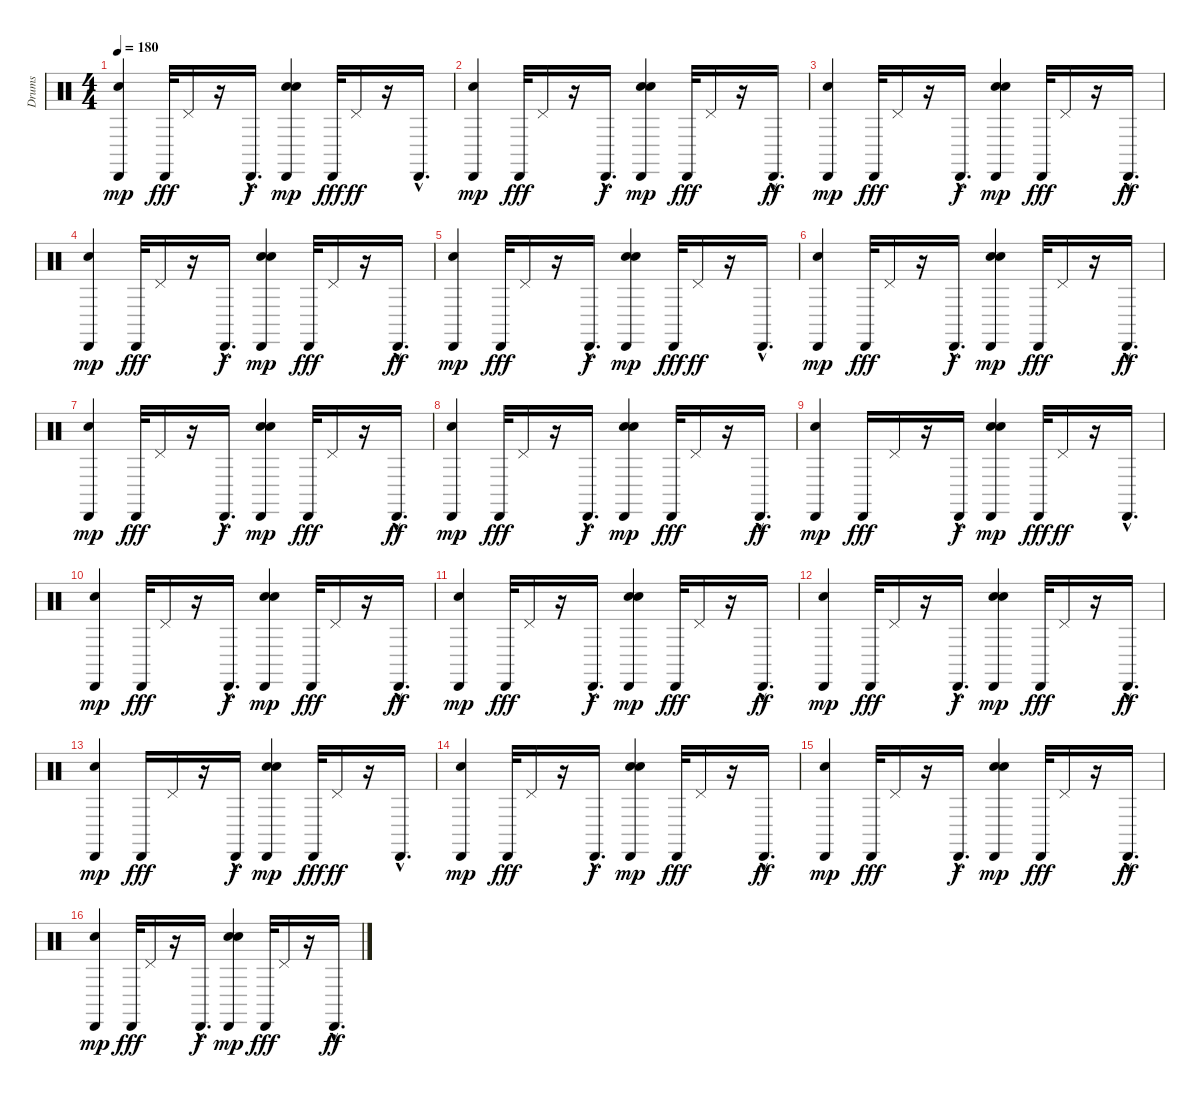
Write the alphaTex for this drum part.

\track ("Drums" "Drums") {instrument percussion}
\staff {score}
\articulation defaults
\ts (4 4)
\tempo 180
\clef neutral
\ks c
("Snare (hit) 2" "Cabasa (hit)").4{dy mp} "Cabasa (hit)".32{dy fff} "Pedal Hi-Hat (hit)".16 r.16 "Cabasa (hit)"{hac}.16{d dy f} ("Snare (hit) 2" "Snare (hit) 2" "Cabasa (hit)").4{dy mp} "Cabasa (hit)".32{dy fff} "Pedal Hi-Hat (hit)".16{dy ff} r.16 "Cabasa (hit)"{hac}.16{d} |
("Snare (hit) 2" "Cabasa (hit)").4{dy mp} "Cabasa (hit)".32{dy fff} "Pedal Hi-Hat (hit)".16 r.16 "Cabasa (hit)"{hac}.16{d dy f} ("Snare (hit) 2" "Snare (hit) 2" "Cabasa (hit)").4{dy mp} "Cabasa (hit)".32{dy fff} "Pedal Hi-Hat (hit)".16 r.16 "Cabasa (hit)"{hac}.16{d dy ff} |
("Snare (hit) 2" "Cabasa (hit)").4{dy mp} "Cabasa (hit)".32{dy fff} "Pedal Hi-Hat (hit)".16 r.16 "Cabasa (hit)"{hac}.16{d dy f} ("Snare (hit) 2" "Snare (hit) 2" "Cabasa (hit)").4{dy mp} "Cabasa (hit)".32{dy fff} "Pedal Hi-Hat (hit)".16 r.16 "Cabasa (hit)"{hac}.16{d dy ff} |
("Snare (hit) 2" "Cabasa (hit)").4{dy mp} "Cabasa (hit)".32{dy fff} "Pedal Hi-Hat (hit)".16 r.16 "Cabasa (hit)"{hac}.16{d dy f} ("Snare (hit) 2" "Snare (hit) 2" "Cabasa (hit)").4{dy mp} "Cabasa (hit)".32{dy fff} "Pedal Hi-Hat (hit)".16 r.16 "Cabasa (hit)"{hac}.16{d dy ff} |
("Snare (hit) 2" "Cabasa (hit)").4{dy mp} "Cabasa (hit)".32{dy fff} "Pedal Hi-Hat (hit)".16 r.16 "Cabasa (hit)"{hac}.16{d dy f} ("Snare (hit) 2" "Snare (hit) 2" "Cabasa (hit)").4{dy mp} "Cabasa (hit)".32{dy fff} "Pedal Hi-Hat (hit)".16{dy ff} r.16 "Cabasa (hit)"{hac}.16{d} |
("Snare (hit) 2" "Cabasa (hit)").4{dy mp} "Cabasa (hit)".32{dy fff} "Pedal Hi-Hat (hit)".16 r.16 "Cabasa (hit)"{hac}.16{d dy f} ("Snare (hit) 2" "Snare (hit) 2" "Cabasa (hit)").4{dy mp} "Cabasa (hit)".32{dy fff} "Pedal Hi-Hat (hit)".16 r.16 "Cabasa (hit)"{hac}.16{d dy ff} |
("Snare (hit) 2" "Cabasa (hit)").4{dy mp} "Cabasa (hit)".32{dy fff} "Pedal Hi-Hat (hit)".16 r.16 "Cabasa (hit)"{hac}.16{d dy f} ("Snare (hit) 2" "Snare (hit) 2" "Cabasa (hit)").4{dy mp} "Cabasa (hit)".32{dy fff} "Pedal Hi-Hat (hit)".16 r.16 "Cabasa (hit)"{hac}.16{d dy ff} |
("Snare (hit) 2" "Cabasa (hit)").4{dy mp} "Cabasa (hit)".32{dy fff} "Pedal Hi-Hat (hit)".16 r.16 "Cabasa (hit)"{hac}.16{d dy f} ("Snare (hit) 2" "Snare (hit) 2" "Cabasa (hit)").4{dy mp} "Cabasa (hit)".32{dy fff} "Pedal Hi-Hat (hit)".16 r.16 "Cabasa (hit)"{hac}.16{d dy ff} |
("Snare (hit) 2" "Cabasa (hit)").4{dy mp} "Cabasa (hit)".16{dy fff} "Pedal Hi-Hat (hit)".16 r.16 "Cabasa (hit)"{hac}.16{dy f} ("Snare (hit) 2" "Snare (hit) 2" "Cabasa (hit)").4{dy mp} "Cabasa (hit)".32{dy fff} "Pedal Hi-Hat (hit)".16{dy ff} r.16 "Cabasa (hit)"{hac}.16{d} |
("Snare (hit) 2" "Cabasa (hit)").4{dy mp} "Cabasa (hit)".32{dy fff} "Pedal Hi-Hat (hit)".16 r.16 "Cabasa (hit)"{hac}.16{d dy f} ("Snare (hit) 2" "Snare (hit) 2" "Cabasa (hit)").4{dy mp} "Cabasa (hit)".32{dy fff} "Pedal Hi-Hat (hit)".16 r.16 "Cabasa (hit)"{hac}.16{d dy ff} |
("Snare (hit) 2" "Cabasa (hit)").4{dy mp} "Cabasa (hit)".32{dy fff} "Pedal Hi-Hat (hit)".16 r.16 "Cabasa (hit)"{hac}.16{d dy f} ("Snare (hit) 2" "Snare (hit) 2" "Cabasa (hit)").4{dy mp} "Cabasa (hit)".32{dy fff} "Pedal Hi-Hat (hit)".16 r.16 "Cabasa (hit)"{hac}.16{d dy ff} |
("Snare (hit) 2" "Cabasa (hit)").4{dy mp} "Cabasa (hit)".32{dy fff} "Pedal Hi-Hat (hit)".16 r.16 "Cabasa (hit)"{hac}.16{d dy f} ("Snare (hit) 2" "Snare (hit) 2" "Cabasa (hit)").4{dy mp} "Cabasa (hit)".32{dy fff} "Pedal Hi-Hat (hit)".16 r.16 "Cabasa (hit)"{hac}.16{d dy ff} |
("Snare (hit) 2" "Cabasa (hit)").4{dy mp} "Cabasa (hit)".16{dy fff} "Pedal Hi-Hat (hit)".16 r.16 "Cabasa (hit)"{hac}.16{dy f} ("Snare (hit) 2" "Snare (hit) 2" "Cabasa (hit)").4{dy mp} "Cabasa (hit)".32{dy fff} "Pedal Hi-Hat (hit)".16{dy ff} r.16 "Cabasa (hit)"{hac}.16{d} |
("Snare (hit) 2" "Cabasa (hit)").4{dy mp} "Cabasa (hit)".32{dy fff} "Pedal Hi-Hat (hit)".16 r.16 "Cabasa (hit)"{hac}.16{d dy f} ("Snare (hit) 2" "Snare (hit) 2" "Cabasa (hit)").4{dy mp} "Cabasa (hit)".32{dy fff} "Pedal Hi-Hat (hit)".16 r.16 "Cabasa (hit)"{hac}.16{d dy ff} |
("Snare (hit) 2" "Cabasa (hit)").4{dy mp} "Cabasa (hit)".32{dy fff} "Pedal Hi-Hat (hit)".16 r.16 "Cabasa (hit)"{hac}.16{d dy f} ("Snare (hit) 2" "Snare (hit) 2" "Cabasa (hit)").4{dy mp} "Cabasa (hit)".32{dy fff} "Pedal Hi-Hat (hit)".16 r.16 "Cabasa (hit)"{hac}.16{d dy ff} |
("Snare (hit) 2" "Cabasa (hit)").4{dy mp} "Cabasa (hit)".32{dy fff} "Pedal Hi-Hat (hit)".16 r.16 "Cabasa (hit)"{hac}.16{d dy f} ("Snare (hit) 2" "Snare (hit) 2" "Cabasa (hit)").4{dy mp} "Cabasa (hit)".32{dy fff} "Pedal Hi-Hat (hit)".16 r.16 "Cabasa (hit)"{hac}.16{d dy ff}
